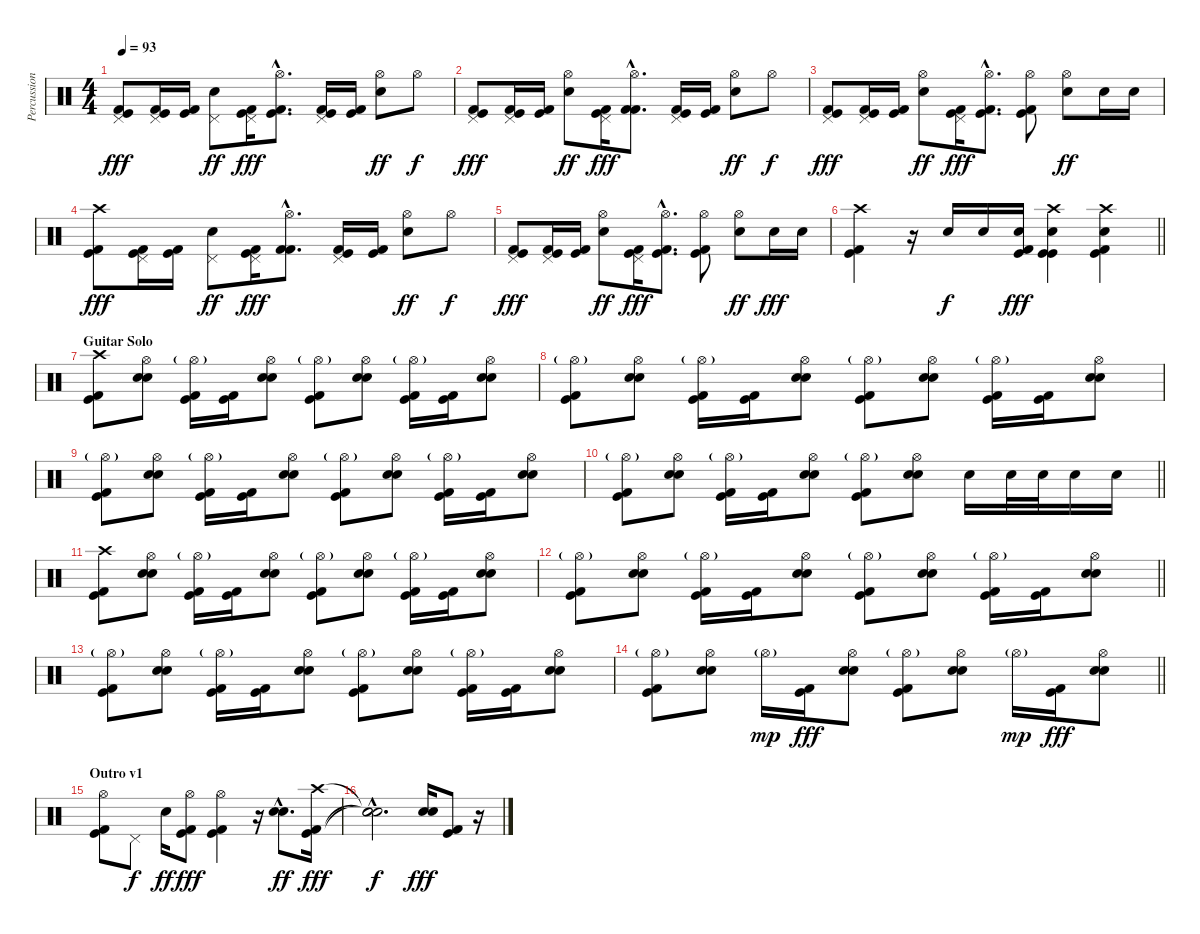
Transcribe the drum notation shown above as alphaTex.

\track ("Percussion" "Percussion") {instrument percussion}
\staff {score}
\articulation defaults
\ts (4 4)
\tempo 93
\clef neutral
\ks c
("Pedal Hi-Hat (hit)" "Kick (hit)" "Kick (hit) 2").8{dy fff} ("Pedal Hi-Hat (hit)" "Kick (hit)" "Kick (hit) 2").16 ("Kick (hit)" "Kick (hit) 2").16 ("Pedal Hi-Hat (hit)" "Snare (hit) 2").8{dy ff} ("Pedal Hi-Hat (hit)" "Kick (hit)" "Kick (hit) 2").16{dy fff} ("Hi-Hat (open)"{hac} "Kick (hit)"{hac} "Kick (hit) 2"{hac}).8{d} ("Pedal Hi-Hat (hit)" "Kick (hit)" "Kick (hit) 2").16 ("Kick (hit)" "Kick (hit) 2").16 ("Hi-Hat (open)" "Snare (hit) 2").8{dy ff} "Hi-Hat (open)".8{dy f} |
("Pedal Hi-Hat (hit)" "Kick (hit)" "Kick (hit) 2").8{dy fff} ("Pedal Hi-Hat (hit)" "Kick (hit)" "Kick (hit) 2").16 ("Kick (hit)" "Kick (hit) 2").16 ("Hi-Hat (open)" "Snare (hit) 2").8{dy ff} ("Pedal Hi-Hat (hit)" "Kick (hit)" "Kick (hit) 2").16{dy fff} ("Hi-Hat (open)"{hac} "Kick (hit) 2"{hac} "Kick (hit) 2"{hac}).8{d} ("Pedal Hi-Hat (hit)" "Kick (hit)" "Kick (hit) 2").16 ("Kick (hit)" "Kick (hit) 2").16 ("Hi-Hat (open)" "Snare (hit) 2").8{dy ff} "Hi-Hat (open)".8{dy f} |
("Pedal Hi-Hat (hit)" "Kick (hit)" "Kick (hit) 2").8{dy fff} ("Pedal Hi-Hat (hit)" "Kick (hit)" "Kick (hit) 2").16 ("Kick (hit)" "Kick (hit) 2").16 ("Hi-Hat (open)" "Snare (hit) 2").8{dy ff} ("Pedal Hi-Hat (hit)" "Kick (hit)" "Kick (hit) 2").16{dy fff} ("Hi-Hat (open)"{hac} "Kick (hit)"{hac} "Kick (hit) 2"{hac}).8{d} ("Hi-Hat (open)" "Kick (hit)" "Kick (hit) 2").8 ("Hi-Hat (open)" "Snare (hit) 2").8{dy ff} "Snare (hit) 2".16 "Snare (hit) 2".16 |
("Crash high (hit)" "Kick (hit)" "Kick (hit) 2").8{dy fff} ("Pedal Hi-Hat (hit)" "Kick (hit)" "Kick (hit) 2").16 ("Kick (hit)" "Kick (hit) 2").16 ("Pedal Hi-Hat (hit)" "Snare (hit) 2").8{dy ff} ("Pedal Hi-Hat (hit)" "Kick (hit)" "Kick (hit) 2").16{dy fff} ("Hi-Hat (open)"{hac} "Kick (hit) 2"{hac} "Kick (hit) 2"{hac}).8{d} ("Pedal Hi-Hat (hit)" "Kick (hit)" "Kick (hit) 2").16 ("Kick (hit)" "Kick (hit) 2").16 ("Hi-Hat (open)" "Snare (hit) 2").8{dy ff} "Hi-Hat (open)".8{dy f} |
("Pedal Hi-Hat (hit)" "Kick (hit)" "Kick (hit) 2").8{dy fff} ("Pedal Hi-Hat (hit)" "Kick (hit)" "Kick (hit) 2").16 ("Kick (hit)" "Kick (hit) 2").16 ("Hi-Hat (open)" "Snare (hit) 2").8{dy ff} ("Pedal Hi-Hat (hit)" "Kick (hit)" "Kick (hit) 2").16{dy fff} ("Hi-Hat (open)"{hac} "Kick (hit)"{hac} "Kick (hit) 2"{hac}).8{d} ("Hi-Hat (open)" "Kick (hit)" "Kick (hit) 2").8 ("Hi-Hat (open)" "Snare (hit) 2").8{dy ff} "Snare (hit) 2".16{dy fff} "Snare (hit) 2".16 |
\barLineRight lightlight
("Crash high (hit)" "Kick (hit)" "Kick (hit) 2").4 r.16 "Snare (hit) 2".16{dy f} "Snare (hit) 2".16 ("Snare (hit) 2" "Kick (hit)" "Kick (hit) 2").16{dy fff} ("Crash high (hit)" "Snare (hit) 2" "Kick (hit)" "Kick (hit)").4 ("Crash high (hit)" "Snare (hit) 2" "Kick (hit)" "Kick (hit) 2").4 |
\section ("" "Guitar Solo")
("Crash high (hit)" "Kick (hit)" "Kick (hit) 2").8{volume 14} ("Hi-Hat (open)" "Electric Snare (hit)" "Snare (hit) 2").8 ("Hi-Hat (open)"{g} "Kick (hit)" "Kick (hit) 2").16 ("Kick (hit)" "Kick (hit) 2").16 ("Hi-Hat (open)" "Electric Snare (hit)" "Snare (hit) 2").8 ("Hi-Hat (open)"{g} "Kick (hit)" "Kick (hit) 2").8 ("Hi-Hat (open)" "Electric Snare (hit)" "Snare (hit) 2").8 ("Hi-Hat (open)"{g} "Kick (hit)" "Kick (hit) 2").16 ("Kick (hit)" "Kick (hit) 2").16 ("Hi-Hat (open)" "Electric Snare (hit)" "Snare (hit) 2").8 |
("Hi-Hat (open)"{g} "Kick (hit)" "Kick (hit) 2").8 ("Hi-Hat (open)" "Electric Snare (hit)" "Snare (hit) 2").8 ("Hi-Hat (open)"{g} "Kick (hit)" "Kick (hit) 2").16 ("Kick (hit)" "Kick (hit) 2").16 ("Hi-Hat (open)" "Electric Snare (hit)" "Snare (hit) 2").8 ("Hi-Hat (open)"{g} "Kick (hit)" "Kick (hit) 2").8 ("Hi-Hat (open)" "Electric Snare (hit)" "Snare (hit) 2").8 ("Hi-Hat (open)"{g} "Kick (hit)" "Kick (hit) 2").16 ("Kick (hit)" "Kick (hit) 2").16 ("Hi-Hat (open)" "Electric Snare (hit)" "Snare (hit) 2").8 |
("Hi-Hat (open)"{g} "Kick (hit)" "Kick (hit) 2").8 ("Hi-Hat (open)" "Electric Snare (hit)" "Snare (hit) 2").8 ("Hi-Hat (open)"{g} "Kick (hit)" "Kick (hit) 2").16 ("Kick (hit)" "Kick (hit) 2").16 ("Hi-Hat (open)" "Electric Snare (hit)" "Snare (hit) 2").8 ("Hi-Hat (open)"{g} "Kick (hit)" "Kick (hit) 2").8 ("Hi-Hat (open)" "Electric Snare (hit)" "Snare (hit) 2").8 ("Hi-Hat (open)"{g} "Kick (hit)" "Kick (hit) 2").16 ("Kick (hit)" "Kick (hit) 2").16 ("Hi-Hat (open)" "Electric Snare (hit)" "Snare (hit) 2").8 |
\barLineRight lightlight
("Hi-Hat (open)"{g} "Kick (hit)" "Kick (hit) 2").8 ("Hi-Hat (open)" "Electric Snare (hit)" "Snare (hit) 2").8 ("Hi-Hat (open)"{g} "Kick (hit)" "Kick (hit) 2").16 ("Kick (hit)" "Kick (hit) 2").16 ("Hi-Hat (open)" "Electric Snare (hit)" "Snare (hit) 2").8 ("Hi-Hat (open)"{g} "Kick (hit)" "Kick (hit) 2").8 ("Hi-Hat (open)" "Electric Snare (hit)" "Snare (hit) 2").8 "Snare (hit) 2".16 "Snare (hit) 2".32 "Snare (hit) 2".32 "Snare (hit) 2".16 "Snare (hit) 2".16 |
("Crash high (hit)" "Kick (hit)" "Kick (hit) 2").8 ("Hi-Hat (open)" "Electric Snare (hit)" "Snare (hit) 2").8 ("Hi-Hat (open)"{g} "Kick (hit)" "Kick (hit) 2").16 ("Kick (hit)" "Kick (hit) 2").16 ("Hi-Hat (open)" "Electric Snare (hit)" "Snare (hit) 2").8 ("Hi-Hat (open)"{g} "Kick (hit)" "Kick (hit) 2").8 ("Hi-Hat (open)" "Electric Snare (hit)" "Snare (hit) 2").8 ("Hi-Hat (open)"{g} "Kick (hit)" "Kick (hit) 2").16 ("Kick (hit)" "Kick (hit) 2").16 ("Hi-Hat (open)" "Electric Snare (hit)" "Snare (hit) 2").8 |
\barLineRight lightlight
("Hi-Hat (open)"{g} "Kick (hit)" "Kick (hit) 2").8 ("Hi-Hat (open)" "Electric Snare (hit)" "Snare (hit) 2").8 ("Hi-Hat (open)"{g} "Kick (hit)" "Kick (hit) 2").16 ("Kick (hit)" "Kick (hit) 2").16 ("Hi-Hat (open)" "Electric Snare (hit)" "Snare (hit) 2").8 ("Hi-Hat (open)"{g} "Kick (hit)" "Kick (hit) 2").8 ("Hi-Hat (open)" "Electric Snare (hit)" "Snare (hit) 2").8 ("Hi-Hat (open)"{g} "Kick (hit)" "Kick (hit) 2").16 ("Kick (hit)" "Kick (hit) 2").16 ("Hi-Hat (open)" "Electric Snare (hit)" "Snare (hit) 2").8 |
("Hi-Hat (open)"{g} "Kick (hit)" "Kick (hit) 2").8 ("Hi-Hat (open)" "Electric Snare (hit)" "Snare (hit) 2").8 ("Hi-Hat (open)"{g} "Kick (hit)" "Kick (hit) 2").16 ("Kick (hit)" "Kick (hit) 2").16 ("Hi-Hat (open)" "Electric Snare (hit)" "Snare (hit) 2").8 ("Hi-Hat (open)"{g} "Kick (hit)" "Kick (hit) 2").8 ("Hi-Hat (open)" "Electric Snare (hit)" "Snare (hit) 2").8 ("Hi-Hat (open)"{g} "Kick (hit)" "Kick (hit) 2").16 ("Kick (hit)" "Kick (hit) 2").16 ("Hi-Hat (open)" "Electric Snare (hit)" "Snare (hit) 2").8 |
\barLineRight lightlight
("Hi-Hat (open)"{g} "Kick (hit)" "Kick (hit) 2").8 ("Hi-Hat (open)" "Electric Snare (hit)" "Snare (hit) 2").8 "Hi-Hat (open)"{g}.16{dy mp} ("Kick (hit)" "Kick (hit) 2").16{dy fff} ("Hi-Hat (open)" "Electric Snare (hit)" "Snare (hit) 2").8 ("Hi-Hat (open)"{g} "Kick (hit)" "Kick (hit) 2").8 ("Hi-Hat (open)" "Electric Snare (hit)" "Snare (hit) 2").8 "Hi-Hat (open)"{g}.16{dy mp} ("Kick (hit)" "Kick (hit) 2").16{dy fff} ("Hi-Hat (open)" "Electric Snare (hit)" "Snare (hit) 2").8 |
\section ("" "Outro v1")
("Hi-Hat (open)" "Kick (hit)" "Kick (hit) 2").8{volume 16 balance 8} "Pedal Hi-Hat (hit)".8{dy f} "Electric Snare (hit)".16{dy ff} ("Hi-Hat (open)" "Kick (hit)" "Kick (hit) 2").8{dy fff} ("Hi-Hat (open)" "Kick (hit)" "Kick (hit) 2").4 r.16 ("Electric Snare (hit)"{hac} "Snare (hit) 2"{hac}).8{d dy ff} ("Crash high (hit)" "Kick (hit)" "Kick (hit) 2").16{dy fff} |
("Snare (hit)"{hac t} "Snare (hit)"{hac t} "Snare (hit)"{hac t}).2{d dy f} ("Electric Snare (hit)" "Snare (hit) 2").16{dy fff} ("Kick (hit)" "Kick (hit) 2").8 r.16
